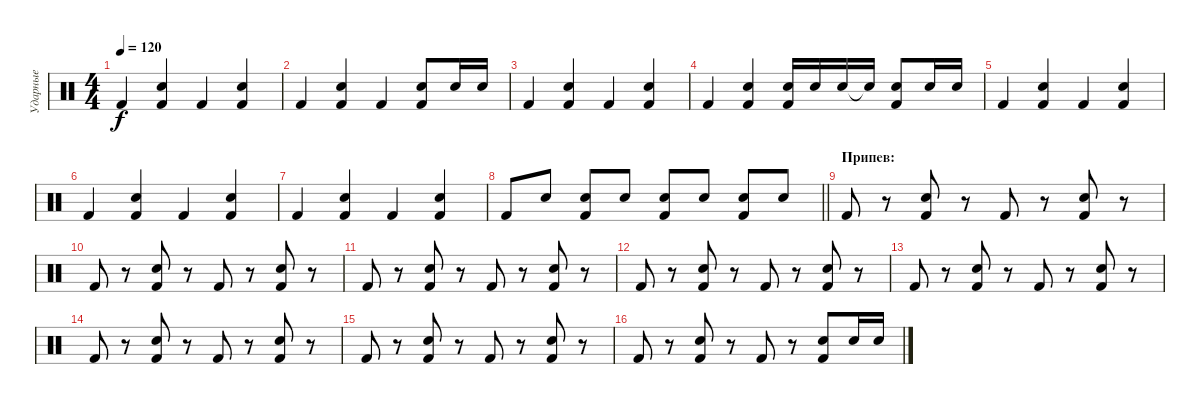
\track ("Ударные" "Ударные") {instrument percussion}
\staff {score}
\articulation defaults
\ts (4 4)
\tempo 120
\clef neutral
\ks c "Kick (hit) 2".4{dy f}
("Kick (hit) 2" "Snare (hit) 2").4 "Kick (hit) 2".4 ("Kick (hit) 2" "Snare (hit) 2").4 |
"Kick (hit) 2".4 ("Kick (hit) 2" "Snare (hit) 2").4 "Kick (hit) 2".4 ("Kick (hit) 2" "Snare (hit) 2").8 "Snare (hit) 2".16 "Snare (hit) 2".16 |
"Kick (hit) 2".4 ("Kick (hit) 2" "Snare (hit) 2").4 "Kick (hit) 2".4 ("Kick (hit) 2" "Snare (hit) 2").4 |
"Kick (hit) 2".4 ("Kick (hit) 2" "Snare (hit) 2").4 ("Snare (hit) 2" "Kick (hit) 2").16 "Snare (hit) 2".16 "Snare (hit) 2".16 "Snare (hit) 2"{t}.16 ("Snare (hit) 2" "Kick (hit) 2").8 "Snare (hit) 2".16 "Snare (hit) 2".16 |
"Kick (hit) 2".4 ("Kick (hit) 2" "Snare (hit) 2").4 "Kick (hit) 2".4 ("Kick (hit) 2" "Snare (hit) 2").4 |
"Kick (hit) 2".4 ("Kick (hit) 2" "Snare (hit) 2").4 "Kick (hit) 2".4 ("Kick (hit) 2" "Snare (hit) 2").4 |
"Kick (hit) 2".4 ("Kick (hit) 2" "Snare (hit) 2").4 "Kick (hit) 2".4 ("Kick (hit) 2" "Snare (hit) 2").4 |
\barLineRight lightlight "Kick (hit) 2".8 "Snare (hit) 2".8
("Snare (hit) 2" "Kick (hit) 2").8 "Snare (hit) 2".8 ("Snare (hit) 2" "Kick (hit) 2").8 "Snare (hit) 2".8 ("Snare (hit) 2" "Kick (hit) 2").8 "Snare (hit) 2".8 |
\section ("" "Припев:")
"Kick (hit) 2".8 r.8 ("Snare (hit) 2" "Kick (hit) 2").8 r.8 "Kick (hit) 2".8 r.8 ("Snare (hit) 2" "Kick (hit) 2").8 r.8 |
"Kick (hit) 2".8 r.8 ("Snare (hit) 2" "Kick (hit) 2").8 r.8 "Kick (hit) 2".8 r.8 ("Snare (hit) 2" "Kick (hit) 2").8 r.8 |
"Kick (hit) 2".8 r.8 ("Snare (hit) 2" "Kick (hit) 2").8 r.8 "Kick (hit) 2".8 r.8 ("Snare (hit) 2" "Kick (hit) 2").8 r.8 |
"Kick (hit) 2".8 r.8 ("Snare (hit) 2" "Kick (hit) 2").8 r.8 "Kick (hit) 2".8 r.8 ("Snare (hit) 2" "Kick (hit) 2").8 r.8 |
"Kick (hit) 2".8 r.8 ("Snare (hit) 2" "Kick (hit) 2").8 r.8 "Kick (hit) 2".8 r.8 ("Snare (hit) 2" "Kick (hit) 2").8 r.8 |
"Kick (hit) 2".8 r.8 ("Snare (hit) 2" "Kick (hit) 2").8 r.8 "Kick (hit) 2".8 r.8 ("Snare (hit) 2" "Kick (hit) 2").8 r.8 |
"Kick (hit) 2".8 r.8 ("Snare (hit) 2" "Kick (hit) 2").8 r.8 "Kick (hit) 2".8 r.8 ("Snare (hit) 2" "Kick (hit) 2").8 r.8 |
"Kick (hit) 2".8 r.8 ("Snare (hit) 2" "Kick (hit) 2").8 r.8 "Kick (hit) 2".8 r.8 ("Snare (hit) 2" "Kick (hit) 2").8 "Snare (hit) 2".16 "Snare (hit) 2".16
